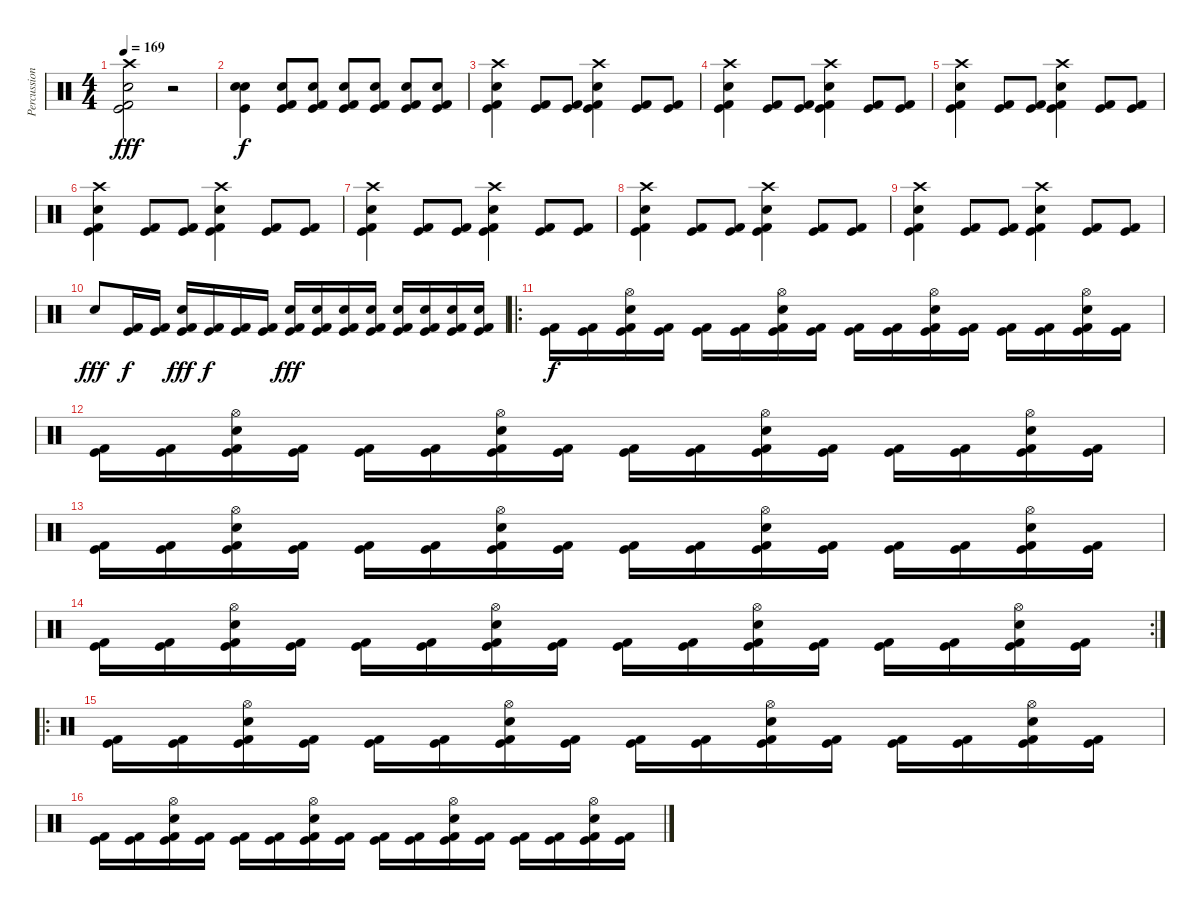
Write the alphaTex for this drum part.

\track ("Percussion" "Percussion") {instrument percussion}
\staff {score}
\articulation defaults
\ts (4 4)
\tempo 169
\clef neutral
\ks c
("Crash high (hit)" "Snare (hit) 2" "Kick (hit) 2" "Kick (hit)").2{dy fff} r.2 |
("Electric Snare (hit)" "Snare (hit) 2" "Kick (hit)").4{dy f} ("Electric Snare (hit)" "Kick (hit) 2" "Kick (hit)").8 ("Electric Snare (hit)" "Kick (hit) 2" "Kick (hit)").8 ("Electric Snare (hit)" "Kick (hit) 2" "Kick (hit)").8 ("Electric Snare (hit)" "Kick (hit) 2" "Kick (hit)").8 ("Electric Snare (hit)" "Kick (hit) 2" "Kick (hit)").8 ("Electric Snare (hit)" "Kick (hit) 2" "Kick (hit)").8 |
("Crash high (hit)" "Electric Snare (hit)" "Kick (hit) 2" "Kick (hit)").4 ("Kick (hit) 2" "Kick (hit)").8 ("Kick (hit) 2" "Kick (hit)").8 ("Crash high (hit)" "Electric Snare (hit)" "Kick (hit) 2" "Kick (hit)").4 ("Kick (hit) 2" "Kick (hit)").8 ("Kick (hit) 2" "Kick (hit)").8 |
("Crash high (hit)" "Electric Snare (hit)" "Kick (hit) 2" "Kick (hit)").4 ("Kick (hit) 2" "Kick (hit)").8 ("Kick (hit) 2" "Kick (hit)").8 ("Crash high (hit)" "Electric Snare (hit)" "Kick (hit) 2" "Kick (hit)").4 ("Kick (hit) 2" "Kick (hit)").8 ("Kick (hit) 2" "Kick (hit)").8 |
("Crash high (hit)" "Electric Snare (hit)" "Kick (hit) 2" "Kick (hit)").4 ("Kick (hit) 2" "Kick (hit)").8 ("Kick (hit) 2" "Kick (hit)").8 ("Crash high (hit)" "Electric Snare (hit)" "Kick (hit) 2" "Kick (hit)").4 ("Kick (hit) 2" "Kick (hit)").8 ("Kick (hit) 2" "Kick (hit)").8 |
("Crash high (hit)" "Electric Snare (hit)" "Kick (hit) 2" "Kick (hit)").4 ("Kick (hit) 2" "Kick (hit)").8 ("Kick (hit) 2" "Kick (hit)").8 ("Crash high (hit)" "Electric Snare (hit)" "Kick (hit) 2" "Kick (hit)").4 ("Kick (hit) 2" "Kick (hit)").8 ("Kick (hit) 2" "Kick (hit)").8 |
("Crash high (hit)" "Electric Snare (hit)" "Kick (hit) 2" "Kick (hit)").4 ("Kick (hit) 2" "Kick (hit)").8 ("Kick (hit) 2" "Kick (hit)").8 ("Crash high (hit)" "Electric Snare (hit)" "Kick (hit) 2" "Kick (hit)").4 ("Kick (hit) 2" "Kick (hit)").8 ("Kick (hit) 2" "Kick (hit)").8 |
("Crash high (hit)" "Electric Snare (hit)" "Kick (hit) 2" "Kick (hit)").4 ("Kick (hit) 2" "Kick (hit)").8 ("Kick (hit) 2" "Kick (hit)").8 ("Crash high (hit)" "Electric Snare (hit)" "Kick (hit) 2" "Kick (hit)").4 ("Kick (hit) 2" "Kick (hit)").8 ("Kick (hit) 2" "Kick (hit)").8 |
("Crash high (hit)" "Electric Snare (hit)" "Kick (hit) 2" "Kick (hit)").4 ("Kick (hit) 2" "Kick (hit)").8 ("Kick (hit) 2" "Kick (hit)").8 ("Crash high (hit)" "Electric Snare (hit)" "Kick (hit) 2" "Kick (hit)").4 ("Kick (hit) 2" "Kick (hit)").8 ("Kick (hit) 2" "Kick (hit)").8 |
"Electric Snare (hit)".8{dy fff} ("Kick (hit) 2" "Kick (hit)").16{dy f} ("Kick (hit) 2" "Kick (hit)").16 ("Kick (hit) 2" "Electric Snare (hit)" "Kick (hit)").16{dy fff} ("Kick (hit) 2" "Kick (hit)").16{dy f} ("Kick (hit) 2" "Kick (hit)").16 ("Kick (hit) 2" "Kick (hit)").16 ("Kick (hit) 2" "Snare (hit) 2" "Kick (hit)").16{dy fff} ("Kick (hit) 2" "Snare (hit) 2" "Kick (hit)").16 ("Kick (hit) 2" "Snare (hit) 2" "Kick (hit)").16 ("Kick (hit) 2" "Snare (hit) 2" "Kick (hit)").16 ("Kick (hit) 2" "Snare (hit) 2" "Kick (hit)").16 ("Kick (hit) 2" "Snare (hit) 2" "Kick (hit)").16 ("Kick (hit) 2" "Snare (hit) 2" "Kick (hit)").16 ("Kick (hit) 2" "Snare (hit) 2" "Kick (hit)").16 |
\ro
("Kick (hit) 2" "Kick (hit)").16{dy f} ("Kick (hit) 2" "Kick (hit)").16 ("Hi-Hat (open)" "Electric Snare (hit)" "Kick (hit) 2" "Kick (hit)").16 ("Kick (hit) 2" "Kick (hit)").16 ("Kick (hit) 2" "Kick (hit)").16 ("Kick (hit) 2" "Kick (hit)").16 ("Hi-Hat (open)" "Electric Snare (hit)" "Kick (hit) 2" "Kick (hit)").16 ("Kick (hit) 2" "Kick (hit)").16 ("Kick (hit) 2" "Kick (hit)").16 ("Kick (hit) 2" "Kick (hit)").16 ("Hi-Hat (open)" "Electric Snare (hit)" "Kick (hit) 2" "Kick (hit)").16 ("Kick (hit) 2" "Kick (hit)").16 ("Kick (hit) 2" "Kick (hit)").16 ("Kick (hit) 2" "Kick (hit)").16 ("Hi-Hat (open)" "Electric Snare (hit)" "Kick (hit) 2" "Kick (hit)").16 ("Kick (hit) 2" "Kick (hit)").16 |
("Kick (hit) 2" "Kick (hit)").16 ("Kick (hit) 2" "Kick (hit)").16 ("Hi-Hat (open)" "Electric Snare (hit)" "Kick (hit) 2" "Kick (hit)").16 ("Kick (hit) 2" "Kick (hit)").16 ("Kick (hit) 2" "Kick (hit)").16 ("Kick (hit) 2" "Kick (hit)").16 ("Hi-Hat (open)" "Electric Snare (hit)" "Kick (hit) 2" "Kick (hit)").16 ("Kick (hit) 2" "Kick (hit)").16 ("Kick (hit) 2" "Kick (hit)").16 ("Kick (hit) 2" "Kick (hit)").16 ("Hi-Hat (open)" "Electric Snare (hit)" "Kick (hit) 2" "Kick (hit)").16 ("Kick (hit) 2" "Kick (hit)").16 ("Kick (hit) 2" "Kick (hit)").16 ("Kick (hit) 2" "Kick (hit)").16 ("Hi-Hat (open)" "Electric Snare (hit)" "Kick (hit) 2" "Kick (hit)").16 ("Kick (hit) 2" "Kick (hit)").16 |
("Kick (hit) 2" "Kick (hit)").16 ("Kick (hit) 2" "Kick (hit)").16 ("Hi-Hat (open)" "Electric Snare (hit)" "Kick (hit) 2" "Kick (hit)").16 ("Kick (hit) 2" "Kick (hit)").16 ("Kick (hit) 2" "Kick (hit)").16 ("Kick (hit) 2" "Kick (hit)").16 ("Hi-Hat (open)" "Electric Snare (hit)" "Kick (hit) 2" "Kick (hit)").16 ("Kick (hit) 2" "Kick (hit)").16 ("Kick (hit) 2" "Kick (hit)").16 ("Kick (hit) 2" "Kick (hit)").16 ("Hi-Hat (open)" "Electric Snare (hit)" "Kick (hit) 2" "Kick (hit)").16 ("Kick (hit) 2" "Kick (hit)").16 ("Kick (hit) 2" "Kick (hit)").16 ("Kick (hit) 2" "Kick (hit)").16 ("Hi-Hat (open)" "Electric Snare (hit)" "Kick (hit) 2" "Kick (hit)").16 ("Kick (hit) 2" "Kick (hit)").16 |
\rc 2
("Kick (hit) 2" "Kick (hit)").16 ("Kick (hit) 2" "Kick (hit)").16 ("Hi-Hat (open)" "Electric Snare (hit)" "Kick (hit) 2" "Kick (hit)").16 ("Kick (hit) 2" "Kick (hit)").16 ("Kick (hit) 2" "Kick (hit)").16 ("Kick (hit) 2" "Kick (hit)").16 ("Hi-Hat (open)" "Electric Snare (hit)" "Kick (hit) 2" "Kick (hit)").16 ("Kick (hit) 2" "Kick (hit)").16 ("Kick (hit) 2" "Kick (hit)").16 ("Kick (hit) 2" "Kick (hit)").16 ("Hi-Hat (open)" "Electric Snare (hit)" "Kick (hit) 2" "Kick (hit)").16 ("Kick (hit) 2" "Kick (hit)").16 ("Kick (hit) 2" "Kick (hit)").16 ("Kick (hit) 2" "Kick (hit)").16 ("Hi-Hat (open)" "Electric Snare (hit)" "Kick (hit) 2" "Kick (hit)").16 ("Kick (hit) 2" "Kick (hit)").16 |
\ro
("Kick (hit) 2" "Kick (hit)").16 ("Kick (hit) 2" "Kick (hit)").16 ("Hi-Hat (open)" "Electric Snare (hit)" "Kick (hit) 2" "Kick (hit)").16 ("Kick (hit) 2" "Kick (hit)").16 ("Kick (hit) 2" "Kick (hit)").16 ("Kick (hit) 2" "Kick (hit)").16 ("Hi-Hat (open)" "Electric Snare (hit)" "Kick (hit) 2" "Kick (hit)").16 ("Kick (hit) 2" "Kick (hit)").16 ("Kick (hit) 2" "Kick (hit)").16 ("Kick (hit) 2" "Kick (hit)").16 ("Hi-Hat (open)" "Electric Snare (hit)" "Kick (hit) 2" "Kick (hit)").16 ("Kick (hit) 2" "Kick (hit)").16 ("Kick (hit) 2" "Kick (hit)").16 ("Kick (hit) 2" "Kick (hit)").16 ("Hi-Hat (open)" "Electric Snare (hit)" "Kick (hit) 2" "Kick (hit)").16 ("Kick (hit) 2" "Kick (hit)").16 |
("Kick (hit) 2" "Kick (hit)").16 ("Kick (hit) 2" "Kick (hit)").16 ("Hi-Hat (open)" "Electric Snare (hit)" "Kick (hit) 2" "Kick (hit)").16 ("Kick (hit) 2" "Kick (hit)").16 ("Kick (hit) 2" "Kick (hit)").16 ("Kick (hit) 2" "Kick (hit)").16 ("Hi-Hat (open)" "Electric Snare (hit)" "Kick (hit) 2" "Kick (hit)").16 ("Kick (hit) 2" "Kick (hit)").16 ("Kick (hit) 2" "Kick (hit)").16 ("Kick (hit) 2" "Kick (hit)").16 ("Hi-Hat (open)" "Electric Snare (hit)" "Kick (hit) 2" "Kick (hit)").16 ("Kick (hit) 2" "Kick (hit)").16 ("Kick (hit) 2" "Kick (hit)").16 ("Kick (hit) 2" "Kick (hit)").16 ("Hi-Hat (open)" "Electric Snare (hit)" "Kick (hit) 2" "Kick (hit)").16 ("Kick (hit) 2" "Kick (hit)").16
